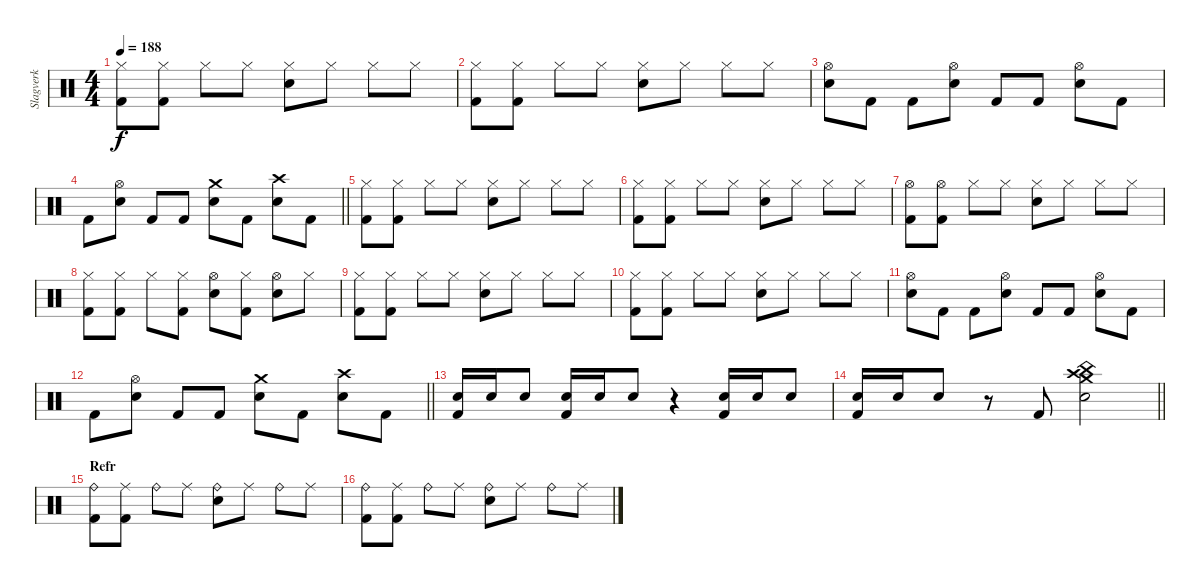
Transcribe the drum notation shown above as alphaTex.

\track ("Slagverk" "Slagverk") {instrument percussion}
\staff {score}
\articulation defaults
\ts (4 4)
\tempo 188
\clef neutral
\ks c
("Hi-Hat (closed)" "Kick (hit) 2").8{dy f} ("Hi-Hat (closed)" "Kick (hit) 2").8 "Hi-Hat (closed)".8 "Hi-Hat (closed)".8 ("Hi-Hat (closed)" "Electric Snare (hit)").8 "Hi-Hat (closed)".8 "Hi-Hat (closed)".8 "Hi-Hat (closed)".8 |
("Hi-Hat (closed)" "Kick (hit) 2").8 ("Hi-Hat (closed)" "Kick (hit) 2").8 "Hi-Hat (closed)".8 "Hi-Hat (closed)".8 ("Hi-Hat (closed)" "Electric Snare (hit)").8 "Hi-Hat (closed)".8 "Hi-Hat (closed)".8 "Hi-Hat (closed)".8 |
("Hi-Hat (open)" "Electric Snare (hit)").8 "Kick (hit) 2".8 "Kick (hit) 2".8 ("Hi-Hat (open)" "Electric Snare (hit)").8 "Kick (hit) 2".8 "Kick (hit) 2".8 ("Hi-Hat (open)" "Electric Snare (hit)").8 "Kick (hit) 2".8 |
\barLineRight lightlight "Kick (hit) 2".8
("Hi-Hat (open)" "Electric Snare (hit)").8 "Kick (hit) 2".8 "Kick (hit) 2".8 ("Crash medium (hit)" "Electric Snare (hit)").8 "Kick (hit) 2".8 ("Crash high (hit)" "Electric Snare (hit)").8 "Kick (hit) 2".8 |
("Hi-Hat (closed)" "Kick (hit) 2").8 ("Hi-Hat (closed)" "Kick (hit) 2").8 "Hi-Hat (closed)".8 "Hi-Hat (closed)".8 ("Hi-Hat (closed)" "Electric Snare (hit)").8 "Hi-Hat (closed)".8 "Hi-Hat (closed)".8 "Hi-Hat (closed)".8 |
("Hi-Hat (closed)" "Kick (hit) 2").8 ("Hi-Hat (closed)" "Kick (hit) 2").8 "Hi-Hat (closed)".8 "Hi-Hat (closed)".8 ("Hi-Hat (closed)" "Electric Snare (hit)").8 "Hi-Hat (closed)".8 "Hi-Hat (closed)".8 "Hi-Hat (closed)".8 |
("Hi-Hat (open)" "Kick (hit) 2").8 ("Hi-Hat (open)" "Kick (hit) 2").8 "Hi-Hat (closed)".8 "Hi-Hat (closed)".8 ("Hi-Hat (closed)" "Electric Snare (hit)").8 "Hi-Hat (closed)".8 "Hi-Hat (closed)".8 "Hi-Hat (closed)".8 |
("Hi-Hat (closed)" "Kick (hit) 2").8 ("Hi-Hat (closed)" "Kick (hit) 2").8 "Hi-Hat (closed)".8 ("Hi-Hat (closed)" "Kick (hit) 2").8 ("Hi-Hat (open)" "Electric Snare (hit)").8 ("Hi-Hat (closed)" "Kick (hit) 2").8 ("Hi-Hat (open)" "Electric Snare (hit)").8 "Hi-Hat (closed)".8 |
("Hi-Hat (closed)" "Kick (hit) 2").8 ("Hi-Hat (closed)" "Kick (hit) 2").8 "Hi-Hat (closed)".8 "Hi-Hat (closed)".8 ("Hi-Hat (closed)" "Electric Snare (hit)").8 "Hi-Hat (closed)".8 "Hi-Hat (closed)".8 "Hi-Hat (closed)".8 |
("Hi-Hat (closed)" "Kick (hit) 2").8 ("Hi-Hat (closed)" "Kick (hit) 2").8 "Hi-Hat (closed)".8 "Hi-Hat (closed)".8 ("Hi-Hat (closed)" "Electric Snare (hit)").8 "Hi-Hat (closed)".8 "Hi-Hat (closed)".8 "Hi-Hat (closed)".8 |
("Hi-Hat (open)" "Electric Snare (hit)").8 "Kick (hit) 2".8 "Kick (hit) 2".8 ("Hi-Hat (open)" "Electric Snare (hit)").8 "Kick (hit) 2".8 "Kick (hit) 2".8 ("Hi-Hat (open)" "Electric Snare (hit)").8 "Kick (hit) 2".8 |
\barLineRight lightlight "Kick (hit) 2".8
("Hi-Hat (open)" "Electric Snare (hit)").8 "Kick (hit) 2".8 "Kick (hit) 2".8 ("Crash medium (hit)" "Electric Snare (hit)").8 "Kick (hit) 2".8 ("Crash high (hit)" "Electric Snare (hit)").8 "Kick (hit) 2".8 |
("Electric Snare (hit)" "Kick (hit) 2").16 "Electric Snare (hit)".16 "Electric Snare (hit)".8 ("Electric Snare (hit)" "Kick (hit) 2").16 "Electric Snare (hit)".16 "Electric Snare (hit)".8 r.4 ("Electric Snare (hit)" "Kick (hit) 2").16 "Electric Snare (hit)".16 "Electric Snare (hit)".8 |
\barLineRight lightlight
("Electric Snare (hit)" "Kick (hit) 2").16 "Electric Snare (hit)".16 "Electric Snare (hit)".8 r.8 "Kick (hit) 2".8 ("Crash high (hit)" "Crash medium (hit)" "China (hit)" "Electric Snare (hit)").2 |
\section ("" "Refr")
("Ride (bell)" "Kick (hit) 2").8 ("Ride (middle)" "Kick (hit) 2").8 "Ride (bell)".8 "Ride (middle)".8 ("Ride (bell)" "Electric Snare (hit)").8 "Ride (middle)".8 "Ride (bell)".8 "Ride (middle)".8 |
("Ride (bell)" "Kick (hit) 2").8 ("Ride (middle)" "Kick (hit) 2").8 "Ride (bell)".8 "Ride (middle)".8 ("Ride (bell)" "Electric Snare (hit)").8 "Ride (middle)".8 "Ride (bell)".8 "Ride (middle)".8
